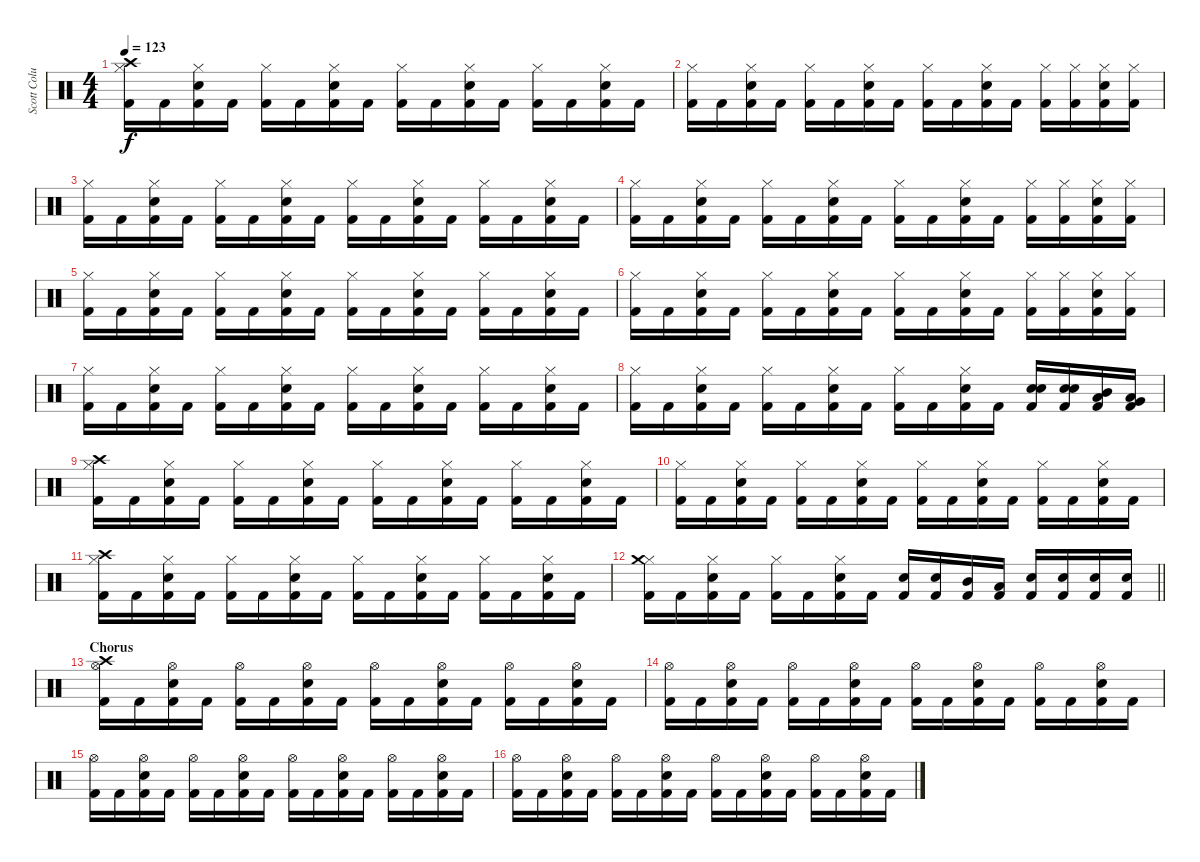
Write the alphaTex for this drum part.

\track ("Scott Columbus" "Scott Colu") {instrument percussion}
\staff {score}
\articulation defaults
\ts (4 4)
\tempo 123
\clef neutral
\ks c
("Kick (hit) 2" "Hi-Hat (closed)" "Crash high (hit)").16{dy f} "Kick (hit) 2".16 ("Kick (hit) 2" "Electric Snare (hit)" "Hi-Hat (closed)").16 "Kick (hit) 2".16 ("Kick (hit) 2" "Hi-Hat (closed)").16 "Kick (hit) 2".16 ("Kick (hit) 2" "Electric Snare (hit)" "Hi-Hat (closed)").16 "Kick (hit) 2".16 ("Kick (hit) 2" "Hi-Hat (closed)").16 "Kick (hit) 2".16 ("Kick (hit) 2" "Electric Snare (hit)" "Hi-Hat (closed)").16 "Kick (hit) 2".16 ("Kick (hit) 2" "Hi-Hat (closed)").16 "Kick (hit) 2".16 ("Kick (hit) 2" "Electric Snare (hit)" "Hi-Hat (closed)").16 "Kick (hit) 2".16 |
("Kick (hit) 2" "Hi-Hat (closed)").16 "Kick (hit) 2".16 ("Kick (hit) 2" "Electric Snare (hit)" "Hi-Hat (closed)").16 "Kick (hit) 2".16 ("Kick (hit) 2" "Hi-Hat (closed)").16 "Kick (hit) 2".16 ("Kick (hit) 2" "Electric Snare (hit)" "Hi-Hat (closed)").16 "Kick (hit) 2".16 ("Kick (hit) 2" "Hi-Hat (closed)").16 "Kick (hit) 2".16 ("Kick (hit) 2" "Electric Snare (hit)" "Hi-Hat (closed)").16 "Kick (hit) 2".16 ("Kick (hit) 2" "Hi-Hat (closed)").16 ("Kick (hit) 2" "Hi-Hat (closed)").16 ("Kick (hit) 2" "Electric Snare (hit)" "Hi-Hat (closed)").16 ("Kick (hit) 2" "Hi-Hat (closed)").16 |
("Kick (hit) 2" "Hi-Hat (closed)").16 "Kick (hit) 2".16 ("Kick (hit) 2" "Electric Snare (hit)" "Hi-Hat (closed)").16 "Kick (hit) 2".16 ("Kick (hit) 2" "Hi-Hat (closed)").16 "Kick (hit) 2".16 ("Kick (hit) 2" "Electric Snare (hit)" "Hi-Hat (closed)").16 "Kick (hit) 2".16 ("Kick (hit) 2" "Hi-Hat (closed)").16 "Kick (hit) 2".16 ("Kick (hit) 2" "Electric Snare (hit)" "Hi-Hat (closed)").16 "Kick (hit) 2".16 ("Kick (hit) 2" "Hi-Hat (closed)").16 "Kick (hit) 2".16 ("Kick (hit) 2" "Electric Snare (hit)" "Hi-Hat (closed)").16 "Kick (hit) 2".16 |
("Kick (hit) 2" "Hi-Hat (closed)").16 "Kick (hit) 2".16 ("Kick (hit) 2" "Electric Snare (hit)" "Hi-Hat (closed)").16 "Kick (hit) 2".16 ("Kick (hit) 2" "Hi-Hat (closed)").16 "Kick (hit) 2".16 ("Kick (hit) 2" "Electric Snare (hit)" "Hi-Hat (closed)").16 "Kick (hit) 2".16 ("Kick (hit) 2" "Hi-Hat (closed)").16 "Kick (hit) 2".16 ("Kick (hit) 2" "Electric Snare (hit)" "Hi-Hat (closed)").16 "Kick (hit) 2".16 ("Kick (hit) 2" "Hi-Hat (closed)").16 ("Kick (hit) 2" "Hi-Hat (closed)").16 ("Kick (hit) 2" "Electric Snare (hit)" "Hi-Hat (closed)").16 ("Kick (hit) 2" "Hi-Hat (closed)").16 |
("Kick (hit) 2" "Hi-Hat (closed)").16 "Kick (hit) 2".16 ("Kick (hit) 2" "Electric Snare (hit)" "Hi-Hat (closed)").16 "Kick (hit) 2".16 ("Kick (hit) 2" "Hi-Hat (closed)").16 "Kick (hit) 2".16 ("Kick (hit) 2" "Electric Snare (hit)" "Hi-Hat (closed)").16 "Kick (hit) 2".16 ("Kick (hit) 2" "Hi-Hat (closed)").16 "Kick (hit) 2".16 ("Kick (hit) 2" "Electric Snare (hit)" "Hi-Hat (closed)").16 "Kick (hit) 2".16 ("Kick (hit) 2" "Hi-Hat (closed)").16 "Kick (hit) 2".16 ("Kick (hit) 2" "Electric Snare (hit)" "Hi-Hat (closed)").16 "Kick (hit) 2".16 |
("Kick (hit) 2" "Hi-Hat (closed)").16 "Kick (hit) 2".16 ("Kick (hit) 2" "Electric Snare (hit)" "Hi-Hat (closed)").16 "Kick (hit) 2".16 ("Kick (hit) 2" "Hi-Hat (closed)").16 "Kick (hit) 2".16 ("Kick (hit) 2" "Electric Snare (hit)" "Hi-Hat (closed)").16 "Kick (hit) 2".16 ("Kick (hit) 2" "Hi-Hat (closed)").16 "Kick (hit) 2".16 ("Kick (hit) 2" "Electric Snare (hit)" "Hi-Hat (closed)").16 "Kick (hit) 2".16 ("Kick (hit) 2" "Hi-Hat (closed)").16 ("Kick (hit) 2" "Hi-Hat (closed)").16 ("Kick (hit) 2" "Electric Snare (hit)" "Hi-Hat (closed)").16 ("Kick (hit) 2" "Hi-Hat (closed)").16 |
("Kick (hit) 2" "Hi-Hat (closed)").16 "Kick (hit) 2".16 ("Kick (hit) 2" "Electric Snare (hit)" "Hi-Hat (closed)").16 "Kick (hit) 2".16 ("Kick (hit) 2" "Hi-Hat (closed)").16 "Kick (hit) 2".16 ("Kick (hit) 2" "Electric Snare (hit)" "Hi-Hat (closed)").16 "Kick (hit) 2".16 ("Kick (hit) 2" "Hi-Hat (closed)").16 "Kick (hit) 2".16 ("Kick (hit) 2" "Electric Snare (hit)" "Hi-Hat (closed)").16 "Kick (hit) 2".16 ("Kick (hit) 2" "Hi-Hat (closed)").16 "Kick (hit) 2".16 ("Kick (hit) 2" "Electric Snare (hit)" "Hi-Hat (closed)").16 "Kick (hit) 2".16 |
("Kick (hit) 2" "Hi-Hat (closed)").16 "Kick (hit) 2".16 ("Kick (hit) 2" "Electric Snare (hit)" "Hi-Hat (closed)").16 "Kick (hit) 2".16 ("Kick (hit) 2" "Hi-Hat (closed)").16 "Kick (hit) 2".16 ("Kick (hit) 2" "Electric Snare (hit)" "Hi-Hat (closed)").16 "Kick (hit) 2".16 ("Kick (hit) 2" "Hi-Hat (closed)").16 "Kick (hit) 2".16 ("Kick (hit) 2" "Electric Snare (hit)" "Hi-Hat (closed)").16 "Kick (hit) 2".16 ("Kick (hit) 2" "Electric Snare (hit)" "Electric Snare (hit)").16 ("Kick (hit) 2" "Electric Snare (hit)" "Electric Snare (hit)").16 ("Kick (hit) 2" "Mid Tom (hit)" "Low Tom (hit)").16 ("Kick (hit) 2" "Low Tom (hit)" "Very Low Tom (hit)").16 |
("Kick (hit) 2" "Hi-Hat (closed)" "Crash high (hit)").16 "Kick (hit) 2".16 ("Kick (hit) 2" "Electric Snare (hit)" "Hi-Hat (closed)").16 "Kick (hit) 2".16 ("Kick (hit) 2" "Hi-Hat (closed)").16 "Kick (hit) 2".16 ("Kick (hit) 2" "Electric Snare (hit)" "Hi-Hat (closed)").16 "Kick (hit) 2".16 ("Kick (hit) 2" "Hi-Hat (closed)").16 "Kick (hit) 2".16 ("Kick (hit) 2" "Electric Snare (hit)" "Hi-Hat (closed)").16 "Kick (hit) 2".16 ("Kick (hit) 2" "Hi-Hat (closed)").16 "Kick (hit) 2".16 ("Kick (hit) 2" "Electric Snare (hit)" "Hi-Hat (closed)").16 "Kick (hit) 2".16 |
("Kick (hit) 2" "Hi-Hat (closed)").16 "Kick (hit) 2".16 ("Kick (hit) 2" "Electric Snare (hit)" "Hi-Hat (closed)").16 "Kick (hit) 2".16 ("Kick (hit) 2" "Hi-Hat (closed)").16 "Kick (hit) 2".16 ("Kick (hit) 2" "Electric Snare (hit)" "Hi-Hat (closed)").16 "Kick (hit) 2".16 ("Kick (hit) 2" "Hi-Hat (closed)").16 "Kick (hit) 2".16 ("Kick (hit) 2" "Electric Snare (hit)" "Hi-Hat (closed)").16 "Kick (hit) 2".16 ("Kick (hit) 2" "Hi-Hat (closed)").16 "Kick (hit) 2".16 ("Kick (hit) 2" "Electric Snare (hit)" "Hi-Hat (closed)").16 "Kick (hit) 2".16 |
("Kick (hit) 2" "Hi-Hat (closed)" "Crash high (hit)").16 "Kick (hit) 2".16 ("Kick (hit) 2" "Electric Snare (hit)" "Hi-Hat (closed)").16 "Kick (hit) 2".16 ("Kick (hit) 2" "Hi-Hat (closed)").16 "Kick (hit) 2".16 ("Kick (hit) 2" "Electric Snare (hit)" "Hi-Hat (closed)").16 "Kick (hit) 2".16 ("Kick (hit) 2" "Hi-Hat (closed)").16 "Kick (hit) 2".16 ("Kick (hit) 2" "Electric Snare (hit)" "Hi-Hat (closed)").16 "Kick (hit) 2".16 ("Kick (hit) 2" "Hi-Hat (closed)").16 "Kick (hit) 2".16 ("Kick (hit) 2" "Electric Snare (hit)" "Hi-Hat (closed)").16 "Kick (hit) 2".16 |
\barLineRight lightlight
("Kick (hit) 2" "Hi-Hat (closed)" "Crash medium (hit)").16 "Kick (hit) 2".16 ("Kick (hit) 2" "Electric Snare (hit)" "Hi-Hat (closed)").16 "Kick (hit) 2".16 ("Kick (hit) 2" "Hi-Hat (closed)").16 "Kick (hit) 2".16 ("Kick (hit) 2" "Electric Snare (hit)" "Hi-Hat (closed)").16 "Kick (hit) 2".16 ("Kick (hit) 2" "Electric Snare (hit)").16 ("Kick (hit) 2" "Electric Snare (hit)").16 ("Kick (hit) 2" "Mid Tom (hit)").16 ("Kick (hit) 2" "Low Tom (hit)").16 ("Kick (hit) 2" "Electric Snare (hit)").16 ("Kick (hit) 2" "Electric Snare (hit)").16 ("Kick (hit) 2" "Electric Snare (hit)").16 ("Kick (hit) 2" "Electric Snare (hit)").16 |
\section ("" "Chorus")
("Kick (hit) 2" "Hi-Hat (open)" "Crash high (hit)").16 "Kick (hit) 2".16 ("Kick (hit) 2" "Electric Snare (hit)" "Hi-Hat (open)").16 "Kick (hit) 2".16 ("Kick (hit) 2" "Hi-Hat (open)").16 "Kick (hit) 2".16 ("Kick (hit) 2" "Electric Snare (hit)" "Hi-Hat (open)").16 "Kick (hit) 2".16 ("Kick (hit) 2" "Hi-Hat (open)").16 "Kick (hit) 2".16 ("Kick (hit) 2" "Electric Snare (hit)" "Hi-Hat (open)").16 "Kick (hit) 2".16 ("Kick (hit) 2" "Hi-Hat (open)").16 "Kick (hit) 2".16 ("Kick (hit) 2" "Electric Snare (hit)" "Hi-Hat (open)").16 "Kick (hit) 2".16 |
("Kick (hit) 2" "Hi-Hat (open)").16 "Kick (hit) 2".16 ("Kick (hit) 2" "Electric Snare (hit)" "Hi-Hat (open)").16 "Kick (hit) 2".16 ("Kick (hit) 2" "Hi-Hat (open)").16 "Kick (hit) 2".16 ("Kick (hit) 2" "Electric Snare (hit)" "Hi-Hat (open)").16 "Kick (hit) 2".16 ("Kick (hit) 2" "Hi-Hat (open)").16 "Kick (hit) 2".16 ("Kick (hit) 2" "Electric Snare (hit)" "Hi-Hat (open)").16 "Kick (hit) 2".16 ("Kick (hit) 2" "Hi-Hat (open)").16 "Kick (hit) 2".16 ("Kick (hit) 2" "Electric Snare (hit)" "Hi-Hat (open)").16 "Kick (hit) 2".16 |
("Kick (hit) 2" "Hi-Hat (open)").16 "Kick (hit) 2".16 ("Kick (hit) 2" "Electric Snare (hit)" "Hi-Hat (open)").16 "Kick (hit) 2".16 ("Kick (hit) 2" "Hi-Hat (open)").16 "Kick (hit) 2".16 ("Kick (hit) 2" "Electric Snare (hit)" "Hi-Hat (open)").16 "Kick (hit) 2".16 ("Kick (hit) 2" "Hi-Hat (open)").16 "Kick (hit) 2".16 ("Kick (hit) 2" "Electric Snare (hit)" "Hi-Hat (open)").16 "Kick (hit) 2".16 ("Kick (hit) 2" "Hi-Hat (open)").16 "Kick (hit) 2".16 ("Kick (hit) 2" "Electric Snare (hit)" "Hi-Hat (open)").16 "Kick (hit) 2".16 |
("Kick (hit) 2" "Hi-Hat (open)").16 "Kick (hit) 2".16 ("Kick (hit) 2" "Electric Snare (hit)" "Hi-Hat (open)").16 "Kick (hit) 2".16 ("Kick (hit) 2" "Hi-Hat (open)").16 "Kick (hit) 2".16 ("Kick (hit) 2" "Electric Snare (hit)" "Hi-Hat (open)").16 "Kick (hit) 2".16 ("Kick (hit) 2" "Hi-Hat (open)").16 "Kick (hit) 2".16 ("Kick (hit) 2" "Electric Snare (hit)" "Hi-Hat (open)").16 "Kick (hit) 2".16 ("Kick (hit) 2" "Hi-Hat (open)").16 "Kick (hit) 2".16 ("Kick (hit) 2" "Electric Snare (hit)" "Hi-Hat (open)").16 "Kick (hit) 2".16
